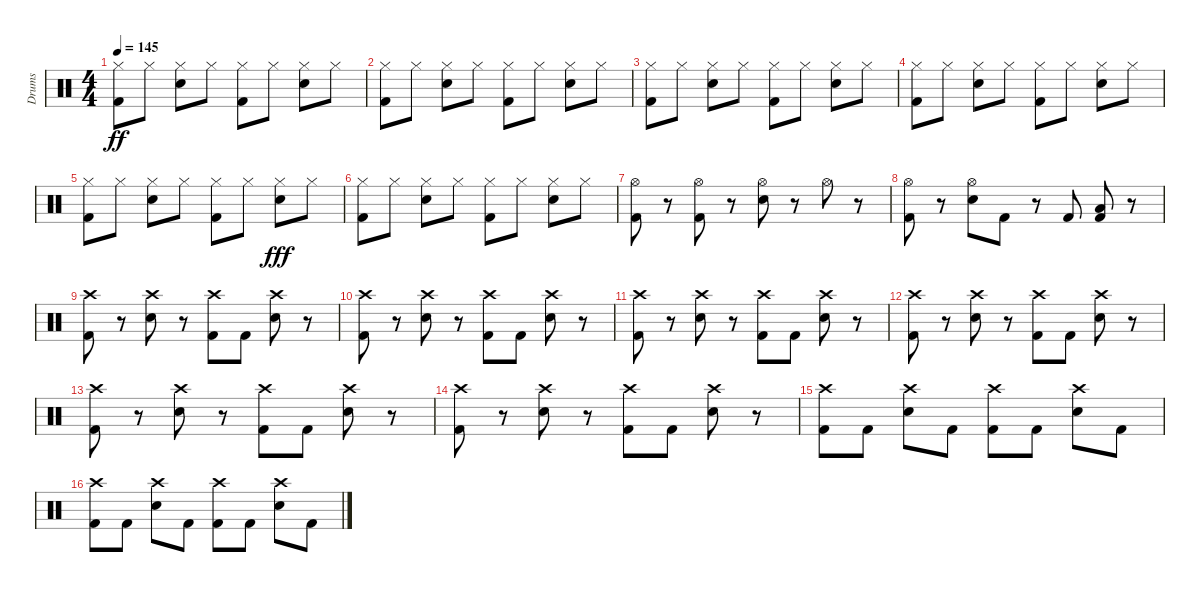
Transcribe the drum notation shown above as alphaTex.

\track ("Drums" "Drums") {instrument percussion}
\staff {score}
\articulation defaults
\ts (4 4)
\tempo 145
\clef neutral
\ks c
("Hi-Hat (closed)" "Kick (hit) 2").8{dy ff} "Hi-Hat (closed)".8 ("Hi-Hat (closed)" "Snare (hit) 2").8 "Hi-Hat (closed)".8 ("Hi-Hat (closed)" "Kick (hit) 2").8 "Hi-Hat (closed)".8 ("Hi-Hat (closed)" "Snare (hit) 2").8 "Hi-Hat (closed)".8 |
("Hi-Hat (closed)" "Kick (hit) 2").8 "Hi-Hat (closed)".8 ("Hi-Hat (closed)" "Snare (hit) 2").8 "Hi-Hat (closed)".8 ("Hi-Hat (closed)" "Kick (hit) 2").8 "Hi-Hat (closed)".8 ("Hi-Hat (closed)" "Snare (hit) 2").8 "Hi-Hat (closed)".8 |
("Hi-Hat (closed)" "Kick (hit) 2").8 "Hi-Hat (closed)".8 ("Hi-Hat (closed)" "Snare (hit) 2").8 "Hi-Hat (closed)".8 ("Hi-Hat (closed)" "Kick (hit) 2").8 "Hi-Hat (closed)".8 ("Hi-Hat (closed)" "Snare (hit) 2").8 "Hi-Hat (closed)".8 |
("Hi-Hat (closed)" "Kick (hit) 2").8 "Hi-Hat (closed)".8 ("Hi-Hat (closed)" "Snare (hit) 2").8 "Hi-Hat (closed)".8 ("Hi-Hat (closed)" "Kick (hit) 2").8 "Hi-Hat (closed)".8 ("Hi-Hat (closed)" "Snare (hit) 2").8 "Hi-Hat (closed)".8 |
("Hi-Hat (closed)" "Kick (hit) 2").8 "Hi-Hat (closed)".8 ("Hi-Hat (closed)" "Snare (hit) 2").8 "Hi-Hat (closed)".8 ("Hi-Hat (closed)" "Kick (hit) 2").8 "Hi-Hat (closed)".8 ("Hi-Hat (closed)" "Snare (hit) 2").8{dy fff} "Hi-Hat (closed)".8 |
("Hi-Hat (closed)" "Kick (hit) 2").8 "Hi-Hat (closed)".8 ("Hi-Hat (closed)" "Snare (hit) 2").8 "Hi-Hat (closed)".8 ("Hi-Hat (closed)" "Kick (hit) 2").8 "Hi-Hat (closed)".8 ("Hi-Hat (closed)" "Snare (hit) 2").8 "Hi-Hat (closed)".8 |
("Hi-Hat (open)" "Kick (hit) 2").8 r.8 ("Hi-Hat (open)" "Kick (hit) 2").8 r.8 ("Hi-Hat (open)" "Snare (hit) 2").8 r.8 "Hi-Hat (open)".8 r.8 |
("Hi-Hat (open)" "Kick (hit) 2").8 r.8 ("Hi-Hat (open)" "Snare (hit) 2").8 "Kick (hit) 2".8 r.8 "Kick (hit) 2".8 ("Low Floor Tom (hit)" "Kick (hit) 2").8 r.8 |
("Crash high (hit)" "Kick (hit) 2").8 r.8 ("Crash high (hit)" "Snare (hit) 2").8 r.8 ("Crash high (hit)" "Kick (hit) 2").8 "Kick (hit) 2".8 ("Crash high (hit)" "Snare (hit) 2").8 r.8 |
("Crash high (hit)" "Kick (hit) 2").8 r.8 ("Crash high (hit)" "Snare (hit) 2").8 r.8 ("Crash high (hit)" "Kick (hit) 2").8 "Kick (hit) 2".8 ("Crash high (hit)" "Snare (hit) 2").8 r.8 |
("Crash high (hit)" "Kick (hit) 2").8 r.8 ("Crash high (hit)" "Snare (hit) 2").8 r.8 ("Crash high (hit)" "Kick (hit) 2").8 "Kick (hit) 2".8 ("Crash high (hit)" "Snare (hit) 2").8 r.8 |
("Crash high (hit)" "Kick (hit) 2").8 r.8 ("Crash high (hit)" "Snare (hit) 2").8 r.8 ("Crash high (hit)" "Kick (hit) 2").8 "Kick (hit) 2".8 ("Crash high (hit)" "Snare (hit) 2").8 r.8 |
("Crash high (hit)" "Kick (hit) 2").8 r.8 ("Crash high (hit)" "Snare (hit) 2").8 r.8 ("Crash high (hit)" "Kick (hit) 2").8 "Kick (hit) 2".8 ("Crash high (hit)" "Snare (hit) 2").8 r.8 |
("Crash high (hit)" "Kick (hit) 2").8 r.8 ("Crash high (hit)" "Snare (hit) 2").8 r.8 ("Crash high (hit)" "Kick (hit) 2").8 "Kick (hit) 2".8 ("Crash high (hit)" "Snare (hit) 2").8 r.8 |
("Crash high (hit)" "Kick (hit) 2").8 "Kick (hit) 2".8 ("Crash high (hit)" "Snare (hit) 2").8 "Kick (hit) 2".8 ("Crash high (hit)" "Kick (hit) 2").8 "Kick (hit) 2".8 ("Crash high (hit)" "Snare (hit) 2").8 "Kick (hit) 2".8 |
("Crash high (hit)" "Kick (hit) 2").8 "Kick (hit) 2".8 ("Crash high (hit)" "Snare (hit) 2").8 "Kick (hit) 2".8 ("Crash high (hit)" "Kick (hit) 2").8 "Kick (hit) 2".8 ("Crash high (hit)" "Snare (hit) 2").8 "Kick (hit) 2".8
